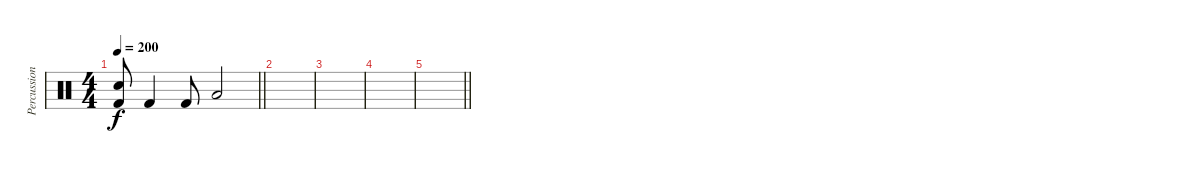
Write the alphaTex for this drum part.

\track ("Percussion" "Percussion") {instrument percussion}
\staff {score}
\articulation defaults
\ts (4 4)
\tempo 200
\clef neutral
\barLineRight lightlight
\ks c
("Snare (hit) 2" "Kick (hit) 2"{t}).8{dy f} "Kick (hit) 2".4 "Kick (hit) 2".8 "Low Floor Tom (hit)".2 |
|
|
|
\barLineRight lightlight
